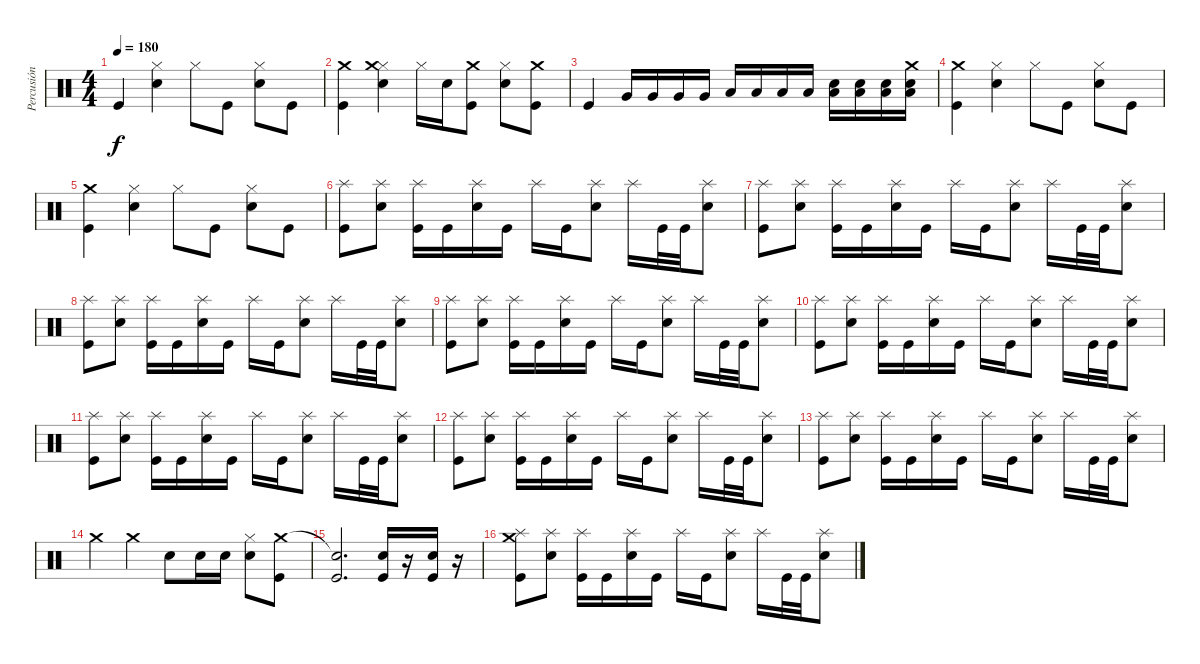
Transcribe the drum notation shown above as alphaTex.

\track ("Percusión" "Percusión") {instrument percussion}
\staff {score}
\articulation defaults
\ts (4 4)
\tempo 180
\clef neutral
\ks c "Kick (hit)".4{dy f}
("Snare (hit) 2" "Hi-Hat (closed)").4 "Hi-Hat (closed)".8 "Kick (hit)".8 ("Snare (hit) 2" "Hi-Hat (closed)").8 "Kick (hit)".8 |
("Kick (hit)" "Crash medium (hit)").4 ("Snare (hit) 2" "Hi-Hat (closed)" "Crash medium (hit)").4 "Hi-Hat (closed)".16 "Snare (hit) 2".16 ("Kick (hit)" "Crash medium (hit)").8 ("Snare (hit) 2" "Hi-Hat (closed)").8 ("Kick (hit)" "Crash medium (hit)").8 |
"Kick (hit)".4 "Very Low Tom (hit)".16 "Very Low Tom (hit)".16 "Very Low Tom (hit)".16 "Very Low Tom (hit)".16 "Low Tom (hit)".16 "Low Tom (hit)".16 "Low Tom (hit)".16 "Low Tom (hit)".16 ("Electric Snare (hit)" "Low Tom (hit)").16 ("Electric Snare (hit)" "Low Tom (hit)").16 ("Electric Snare (hit)" "Low Tom (hit)").16 ("Electric Snare (hit)" "Low Tom (hit)" "Crash medium (hit)").16 |
("Kick (hit)" "Crash medium (hit)").4 ("Snare (hit) 2" "Hi-Hat (closed)").4 "Hi-Hat (closed)".8 "Kick (hit)".8 ("Snare (hit) 2" "Hi-Hat (closed)").8 "Kick (hit)".8 |
("Kick (hit)" "Crash medium (hit)").4 ("Snare (hit) 2" "Hi-Hat (closed)").4 "Hi-Hat (closed)".8 "Kick (hit)".8 ("Snare (hit) 2" "Hi-Hat (closed)").8 "Kick (hit)".8 |
("Splash (hit)" "Kick (hit)").8 ("Splash (hit)" "Electric Snare (hit)").8 ("Splash (hit)" "Kick (hit)").16 "Kick (hit)".16 ("Splash (hit)" "Electric Snare (hit)").16 "Kick (hit)".16 "Splash (hit)".16 "Kick (hit)".16 ("Splash (hit)" "Electric Snare (hit)").8 "Splash (hit)".16 "Kick (hit)".32 "Kick (hit)".32 ("Splash (hit)" "Electric Snare (hit)").8 |
("Splash (hit)" "Kick (hit)").8 ("Splash (hit)" "Electric Snare (hit)").8 ("Splash (hit)" "Kick (hit)").16 "Kick (hit)".16 ("Splash (hit)" "Electric Snare (hit)").16 "Kick (hit)".16 "Splash (hit)".16 "Kick (hit)".16 ("Splash (hit)" "Electric Snare (hit)").8 "Splash (hit)".16 "Kick (hit)".32 "Kick (hit)".32 ("Splash (hit)" "Electric Snare (hit)").8 |
("Splash (hit)" "Kick (hit)").8 ("Splash (hit)" "Electric Snare (hit)").8 ("Splash (hit)" "Kick (hit)").16 "Kick (hit)".16 ("Splash (hit)" "Electric Snare (hit)").16 "Kick (hit)".16 "Splash (hit)".16 "Kick (hit)".16 ("Splash (hit)" "Electric Snare (hit)").8 "Splash (hit)".16 "Kick (hit)".32 "Kick (hit)".32 ("Splash (hit)" "Electric Snare (hit)").8 |
("Splash (hit)" "Kick (hit)").8 ("Splash (hit)" "Electric Snare (hit)").8 ("Splash (hit)" "Kick (hit)").16 "Kick (hit)".16 ("Splash (hit)" "Electric Snare (hit)").16 "Kick (hit)".16 "Splash (hit)".16 "Kick (hit)".16 ("Splash (hit)" "Electric Snare (hit)").8 "Splash (hit)".16 "Kick (hit)".32 "Kick (hit)".32 ("Splash (hit)" "Electric Snare (hit)").8 |
("Splash (hit)" "Kick (hit)").8 ("Splash (hit)" "Electric Snare (hit)").8 ("Splash (hit)" "Kick (hit)").16 "Kick (hit)".16 ("Splash (hit)" "Electric Snare (hit)").16 "Kick (hit)".16 "Splash (hit)".16 "Kick (hit)".16 ("Splash (hit)" "Electric Snare (hit)").8 "Splash (hit)".16 "Kick (hit)".32 "Kick (hit)".32 ("Splash (hit)" "Electric Snare (hit)").8 |
("Splash (hit)" "Kick (hit)").8 ("Splash (hit)" "Electric Snare (hit)").8 ("Splash (hit)" "Kick (hit)").16 "Kick (hit)".16 ("Splash (hit)" "Electric Snare (hit)").16 "Kick (hit)".16 "Splash (hit)".16 "Kick (hit)".16 ("Splash (hit)" "Electric Snare (hit)").8 "Splash (hit)".16 "Kick (hit)".32 "Kick (hit)".32 ("Splash (hit)" "Electric Snare (hit)").8 |
("Splash (hit)" "Kick (hit)").8 ("Splash (hit)" "Electric Snare (hit)").8 ("Splash (hit)" "Kick (hit)").16 "Kick (hit)".16 ("Splash (hit)" "Electric Snare (hit)").16 "Kick (hit)".16 "Splash (hit)".16 "Kick (hit)".16 ("Splash (hit)" "Electric Snare (hit)").8 "Splash (hit)".16 "Kick (hit)".32 "Kick (hit)".32 ("Splash (hit)" "Electric Snare (hit)").8 |
("Splash (hit)" "Kick (hit)").8 ("Splash (hit)" "Electric Snare (hit)").8 ("Splash (hit)" "Kick (hit)").16 "Kick (hit)".16 ("Splash (hit)" "Electric Snare (hit)").16 "Kick (hit)".16 "Splash (hit)".16 "Kick (hit)".16 ("Splash (hit)" "Electric Snare (hit)").8 "Splash (hit)".16 "Kick (hit)".32 "Kick (hit)".32 ("Splash (hit)" "Electric Snare (hit)").8 |
"Crash medium (hit)".4 "Crash medium (hit)".4 "Snare (hit) 2".8 "Snare (hit) 2".16 "Snare (hit) 2".16 ("Snare (hit) 2" "Hi-Hat (closed)").8 ("Kick (hit)" "Crash medium (hit)").8 |
("Kick (hit)" "Snare (hit)"{t}).2{d} ("Snare (hit) 2" "Kick (hit)").16 r.16 ("Snare (hit) 2" "Kick (hit)").16 r.16 |
("Splash (hit)" "Kick (hit)" "Crash medium (hit)").8 ("Splash (hit)" "Electric Snare (hit)").8 ("Splash (hit)" "Kick (hit)").16 "Kick (hit)".16 ("Splash (hit)" "Electric Snare (hit)").16 "Kick (hit)".16 "Splash (hit)".16 "Kick (hit)".16 ("Splash (hit)" "Electric Snare (hit)").8 "Splash (hit)".16 "Kick (hit)".32 "Kick (hit)".32 ("Splash (hit)" "Electric Snare (hit)").8
